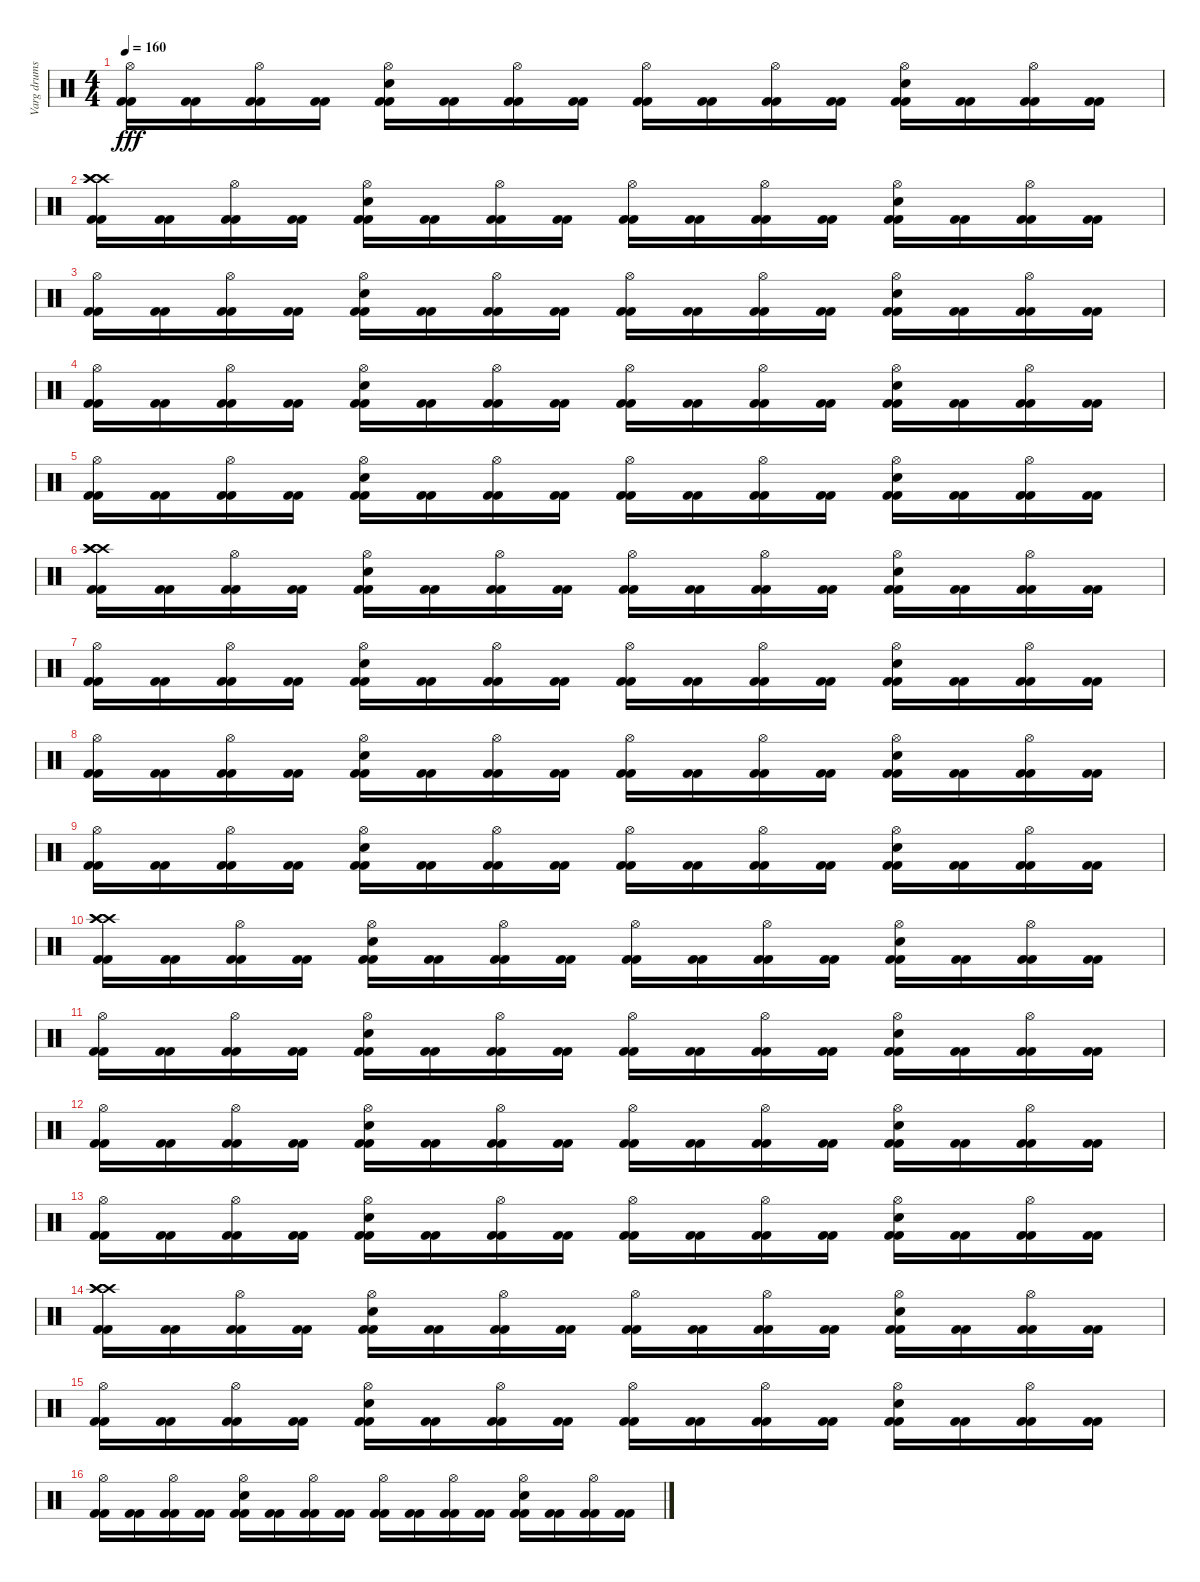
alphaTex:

\track ("Varg drums" "Varg drums") {instrument percussion}
\staff {score}
\articulation defaults
\ts (4 4)
\tempo 160
\clef neutral
\ks c
("Hi-Hat (open)" "Kick (hit) 2" "Kick (hit) 2").16{dy fff} ("Kick (hit) 2" "Kick (hit) 2").16 ("Hi-Hat (open)" "Kick (hit) 2" "Kick (hit) 2").16 ("Kick (hit) 2" "Kick (hit) 2").16 ("Hi-Hat (open)" "Electric Snare (hit)" "Kick (hit) 2" "Kick (hit) 2").16 ("Kick (hit) 2" "Kick (hit) 2").16 ("Hi-Hat (open)" "Kick (hit) 2" "Kick (hit) 2").16 ("Kick (hit) 2" "Kick (hit) 2").16 ("Hi-Hat (open)" "Kick (hit) 2" "Kick (hit) 2").16 ("Kick (hit) 2" "Kick (hit) 2").16 ("Hi-Hat (open)" "Kick (hit) 2" "Kick (hit) 2").16 ("Kick (hit) 2" "Kick (hit) 2").16 ("Hi-Hat (open)" "Electric Snare (hit)" "Kick (hit) 2" "Kick (hit) 2").16 ("Kick (hit) 2" "Kick (hit) 2").16 ("Hi-Hat (open)" "Kick (hit) 2" "Kick (hit) 2").16 ("Kick (hit) 2" "Kick (hit) 2").16 |
("Crash high (hit)" "Crash high (hit)" "Crash high (hit)" "Kick (hit) 2" "Kick (hit) 2").16 ("Kick (hit) 2" "Kick (hit) 2").16 ("Hi-Hat (open)" "Kick (hit) 2" "Kick (hit) 2").16 ("Kick (hit) 2" "Kick (hit) 2").16 ("Hi-Hat (open)" "Electric Snare (hit)" "Kick (hit) 2" "Kick (hit) 2").16 ("Kick (hit) 2" "Kick (hit) 2").16 ("Hi-Hat (open)" "Kick (hit) 2" "Kick (hit) 2").16 ("Kick (hit) 2" "Kick (hit) 2").16 ("Hi-Hat (open)" "Kick (hit) 2" "Kick (hit) 2").16 ("Kick (hit) 2" "Kick (hit) 2").16 ("Hi-Hat (open)" "Kick (hit) 2" "Kick (hit) 2").16 ("Kick (hit) 2" "Kick (hit) 2").16 ("Hi-Hat (open)" "Electric Snare (hit)" "Kick (hit) 2" "Kick (hit) 2").16 ("Kick (hit) 2" "Kick (hit) 2").16 ("Hi-Hat (open)" "Kick (hit) 2" "Kick (hit) 2").16 ("Kick (hit) 2" "Kick (hit) 2").16 |
("Hi-Hat (open)" "Kick (hit) 2" "Kick (hit) 2").16 ("Kick (hit) 2" "Kick (hit) 2").16 ("Hi-Hat (open)" "Kick (hit) 2" "Kick (hit) 2").16 ("Kick (hit) 2" "Kick (hit) 2").16 ("Hi-Hat (open)" "Electric Snare (hit)" "Kick (hit) 2" "Kick (hit) 2").16 ("Kick (hit) 2" "Kick (hit) 2").16 ("Hi-Hat (open)" "Kick (hit) 2" "Kick (hit) 2").16 ("Kick (hit) 2" "Kick (hit) 2").16 ("Hi-Hat (open)" "Kick (hit) 2" "Kick (hit) 2").16 ("Kick (hit) 2" "Kick (hit) 2").16 ("Hi-Hat (open)" "Kick (hit) 2" "Kick (hit) 2").16 ("Kick (hit) 2" "Kick (hit) 2").16 ("Hi-Hat (open)" "Electric Snare (hit)" "Kick (hit) 2" "Kick (hit) 2").16 ("Kick (hit) 2" "Kick (hit) 2").16 ("Hi-Hat (open)" "Kick (hit) 2" "Kick (hit) 2").16 ("Kick (hit) 2" "Kick (hit) 2").16 |
("Hi-Hat (open)" "Kick (hit) 2" "Kick (hit) 2").16 ("Kick (hit) 2" "Kick (hit) 2").16 ("Hi-Hat (open)" "Kick (hit) 2" "Kick (hit) 2").16 ("Kick (hit) 2" "Kick (hit) 2").16 ("Hi-Hat (open)" "Electric Snare (hit)" "Kick (hit) 2" "Kick (hit) 2").16 ("Kick (hit) 2" "Kick (hit) 2").16 ("Hi-Hat (open)" "Kick (hit) 2" "Kick (hit) 2").16 ("Kick (hit) 2" "Kick (hit) 2").16 ("Hi-Hat (open)" "Kick (hit) 2" "Kick (hit) 2").16 ("Kick (hit) 2" "Kick (hit) 2").16 ("Hi-Hat (open)" "Kick (hit) 2" "Kick (hit) 2").16 ("Kick (hit) 2" "Kick (hit) 2").16 ("Hi-Hat (open)" "Electric Snare (hit)" "Kick (hit) 2" "Kick (hit) 2").16 ("Kick (hit) 2" "Kick (hit) 2").16 ("Hi-Hat (open)" "Kick (hit) 2" "Kick (hit) 2").16 ("Kick (hit) 2" "Kick (hit) 2").16 |
("Hi-Hat (open)" "Kick (hit) 2" "Kick (hit) 2").16 ("Kick (hit) 2" "Kick (hit) 2").16 ("Hi-Hat (open)" "Kick (hit) 2" "Kick (hit) 2").16 ("Kick (hit) 2" "Kick (hit) 2").16 ("Hi-Hat (open)" "Electric Snare (hit)" "Kick (hit) 2" "Kick (hit) 2").16 ("Kick (hit) 2" "Kick (hit) 2").16 ("Hi-Hat (open)" "Kick (hit) 2" "Kick (hit) 2").16 ("Kick (hit) 2" "Kick (hit) 2").16 ("Hi-Hat (open)" "Kick (hit) 2" "Kick (hit) 2").16 ("Kick (hit) 2" "Kick (hit) 2").16 ("Hi-Hat (open)" "Kick (hit) 2" "Kick (hit) 2").16 ("Kick (hit) 2" "Kick (hit) 2").16 ("Hi-Hat (open)" "Electric Snare (hit)" "Kick (hit) 2" "Kick (hit) 2").16 ("Kick (hit) 2" "Kick (hit) 2").16 ("Hi-Hat (open)" "Kick (hit) 2" "Kick (hit) 2").16 ("Kick (hit) 2" "Kick (hit) 2").16 |
("Crash high (hit)" "Crash high (hit)" "Crash high (hit)" "Kick (hit) 2" "Kick (hit) 2").16 ("Kick (hit) 2" "Kick (hit) 2").16 ("Hi-Hat (open)" "Kick (hit) 2" "Kick (hit) 2").16 ("Kick (hit) 2" "Kick (hit) 2").16 ("Hi-Hat (open)" "Electric Snare (hit)" "Kick (hit) 2" "Kick (hit) 2").16 ("Kick (hit) 2" "Kick (hit) 2").16 ("Hi-Hat (open)" "Kick (hit) 2" "Kick (hit) 2").16 ("Kick (hit) 2" "Kick (hit) 2").16 ("Hi-Hat (open)" "Kick (hit) 2" "Kick (hit) 2").16 ("Kick (hit) 2" "Kick (hit) 2").16 ("Hi-Hat (open)" "Kick (hit) 2" "Kick (hit) 2").16 ("Kick (hit) 2" "Kick (hit) 2").16 ("Hi-Hat (open)" "Electric Snare (hit)" "Kick (hit) 2" "Kick (hit) 2").16 ("Kick (hit) 2" "Kick (hit) 2").16 ("Hi-Hat (open)" "Kick (hit) 2" "Kick (hit) 2").16 ("Kick (hit) 2" "Kick (hit) 2").16 |
("Hi-Hat (open)" "Kick (hit) 2" "Kick (hit) 2").16 ("Kick (hit) 2" "Kick (hit) 2").16 ("Hi-Hat (open)" "Kick (hit) 2" "Kick (hit) 2").16 ("Kick (hit) 2" "Kick (hit) 2").16 ("Hi-Hat (open)" "Electric Snare (hit)" "Kick (hit) 2" "Kick (hit) 2").16 ("Kick (hit) 2" "Kick (hit) 2").16 ("Hi-Hat (open)" "Kick (hit) 2" "Kick (hit) 2").16 ("Kick (hit) 2" "Kick (hit) 2").16 ("Hi-Hat (open)" "Kick (hit) 2" "Kick (hit) 2").16 ("Kick (hit) 2" "Kick (hit) 2").16 ("Hi-Hat (open)" "Kick (hit) 2" "Kick (hit) 2").16 ("Kick (hit) 2" "Kick (hit) 2").16 ("Hi-Hat (open)" "Electric Snare (hit)" "Kick (hit) 2" "Kick (hit) 2").16 ("Kick (hit) 2" "Kick (hit) 2").16 ("Hi-Hat (open)" "Kick (hit) 2" "Kick (hit) 2").16 ("Kick (hit) 2" "Kick (hit) 2").16 |
("Hi-Hat (open)" "Kick (hit) 2" "Kick (hit) 2").16 ("Kick (hit) 2" "Kick (hit) 2").16 ("Hi-Hat (open)" "Kick (hit) 2" "Kick (hit) 2").16 ("Kick (hit) 2" "Kick (hit) 2").16 ("Hi-Hat (open)" "Electric Snare (hit)" "Kick (hit) 2" "Kick (hit) 2").16 ("Kick (hit) 2" "Kick (hit) 2").16 ("Hi-Hat (open)" "Kick (hit) 2" "Kick (hit) 2").16 ("Kick (hit) 2" "Kick (hit) 2").16 ("Hi-Hat (open)" "Kick (hit) 2" "Kick (hit) 2").16 ("Kick (hit) 2" "Kick (hit) 2").16 ("Hi-Hat (open)" "Kick (hit) 2" "Kick (hit) 2").16 ("Kick (hit) 2" "Kick (hit) 2").16 ("Hi-Hat (open)" "Electric Snare (hit)" "Kick (hit) 2" "Kick (hit) 2").16 ("Kick (hit) 2" "Kick (hit) 2").16 ("Hi-Hat (open)" "Kick (hit) 2" "Kick (hit) 2").16 ("Kick (hit) 2" "Kick (hit) 2").16 |
("Hi-Hat (open)" "Kick (hit) 2" "Kick (hit) 2").16 ("Kick (hit) 2" "Kick (hit) 2").16 ("Hi-Hat (open)" "Kick (hit) 2" "Kick (hit) 2").16 ("Kick (hit) 2" "Kick (hit) 2").16 ("Hi-Hat (open)" "Electric Snare (hit)" "Kick (hit) 2" "Kick (hit) 2").16 ("Kick (hit) 2" "Kick (hit) 2").16 ("Hi-Hat (open)" "Kick (hit) 2" "Kick (hit) 2").16 ("Kick (hit) 2" "Kick (hit) 2").16 ("Hi-Hat (open)" "Kick (hit) 2" "Kick (hit) 2").16 ("Kick (hit) 2" "Kick (hit) 2").16 ("Hi-Hat (open)" "Kick (hit) 2" "Kick (hit) 2").16 ("Kick (hit) 2" "Kick (hit) 2").16 ("Hi-Hat (open)" "Electric Snare (hit)" "Kick (hit) 2" "Kick (hit) 2").16 ("Kick (hit) 2" "Kick (hit) 2").16 ("Hi-Hat (open)" "Kick (hit) 2" "Kick (hit) 2").16 ("Kick (hit) 2" "Kick (hit) 2").16 |
("Crash high (hit)" "Crash high (hit)" "Crash high (hit)" "Kick (hit) 2" "Kick (hit) 2").16 ("Kick (hit) 2" "Kick (hit) 2").16 ("Hi-Hat (open)" "Kick (hit) 2" "Kick (hit) 2").16 ("Kick (hit) 2" "Kick (hit) 2").16 ("Hi-Hat (open)" "Electric Snare (hit)" "Kick (hit) 2" "Kick (hit) 2").16 ("Kick (hit) 2" "Kick (hit) 2").16 ("Hi-Hat (open)" "Kick (hit) 2" "Kick (hit) 2").16 ("Kick (hit) 2" "Kick (hit) 2").16 ("Hi-Hat (open)" "Kick (hit) 2" "Kick (hit) 2").16 ("Kick (hit) 2" "Kick (hit) 2").16 ("Hi-Hat (open)" "Kick (hit) 2" "Kick (hit) 2").16 ("Kick (hit) 2" "Kick (hit) 2").16 ("Hi-Hat (open)" "Electric Snare (hit)" "Kick (hit) 2" "Kick (hit) 2").16 ("Kick (hit) 2" "Kick (hit) 2").16 ("Hi-Hat (open)" "Kick (hit) 2" "Kick (hit) 2").16 ("Kick (hit) 2" "Kick (hit) 2").16 |
("Hi-Hat (open)" "Kick (hit) 2" "Kick (hit) 2").16 ("Kick (hit) 2" "Kick (hit) 2").16 ("Hi-Hat (open)" "Kick (hit) 2" "Kick (hit) 2").16 ("Kick (hit) 2" "Kick (hit) 2").16 ("Hi-Hat (open)" "Electric Snare (hit)" "Kick (hit) 2" "Kick (hit) 2").16 ("Kick (hit) 2" "Kick (hit) 2").16 ("Hi-Hat (open)" "Kick (hit) 2" "Kick (hit) 2").16 ("Kick (hit) 2" "Kick (hit) 2").16 ("Hi-Hat (open)" "Kick (hit) 2" "Kick (hit) 2").16 ("Kick (hit) 2" "Kick (hit) 2").16 ("Hi-Hat (open)" "Kick (hit) 2" "Kick (hit) 2").16 ("Kick (hit) 2" "Kick (hit) 2").16 ("Hi-Hat (open)" "Electric Snare (hit)" "Kick (hit) 2" "Kick (hit) 2").16 ("Kick (hit) 2" "Kick (hit) 2").16 ("Hi-Hat (open)" "Kick (hit) 2" "Kick (hit) 2").16 ("Kick (hit) 2" "Kick (hit) 2").16 |
("Hi-Hat (open)" "Kick (hit) 2" "Kick (hit) 2").16 ("Kick (hit) 2" "Kick (hit) 2").16 ("Hi-Hat (open)" "Kick (hit) 2" "Kick (hit) 2").16 ("Kick (hit) 2" "Kick (hit) 2").16 ("Hi-Hat (open)" "Electric Snare (hit)" "Kick (hit) 2" "Kick (hit) 2").16 ("Kick (hit) 2" "Kick (hit) 2").16 ("Hi-Hat (open)" "Kick (hit) 2" "Kick (hit) 2").16 ("Kick (hit) 2" "Kick (hit) 2").16 ("Hi-Hat (open)" "Kick (hit) 2" "Kick (hit) 2").16 ("Kick (hit) 2" "Kick (hit) 2").16 ("Hi-Hat (open)" "Kick (hit) 2" "Kick (hit) 2").16 ("Kick (hit) 2" "Kick (hit) 2").16 ("Hi-Hat (open)" "Electric Snare (hit)" "Kick (hit) 2" "Kick (hit) 2").16 ("Kick (hit) 2" "Kick (hit) 2").16 ("Hi-Hat (open)" "Kick (hit) 2" "Kick (hit) 2").16 ("Kick (hit) 2" "Kick (hit) 2").16 |
("Hi-Hat (open)" "Kick (hit) 2" "Kick (hit) 2").16 ("Kick (hit) 2" "Kick (hit) 2").16 ("Hi-Hat (open)" "Kick (hit) 2" "Kick (hit) 2").16 ("Kick (hit) 2" "Kick (hit) 2").16 ("Hi-Hat (open)" "Electric Snare (hit)" "Kick (hit) 2" "Kick (hit) 2").16 ("Kick (hit) 2" "Kick (hit) 2").16 ("Hi-Hat (open)" "Kick (hit) 2" "Kick (hit) 2").16 ("Kick (hit) 2" "Kick (hit) 2").16 ("Hi-Hat (open)" "Kick (hit) 2" "Kick (hit) 2").16 ("Kick (hit) 2" "Kick (hit) 2").16 ("Hi-Hat (open)" "Kick (hit) 2" "Kick (hit) 2").16 ("Kick (hit) 2" "Kick (hit) 2").16 ("Hi-Hat (open)" "Electric Snare (hit)" "Kick (hit) 2" "Kick (hit) 2").16 ("Kick (hit) 2" "Kick (hit) 2").16 ("Hi-Hat (open)" "Kick (hit) 2" "Kick (hit) 2").16 ("Kick (hit) 2" "Kick (hit) 2").16 |
("Crash high (hit)" "Crash high (hit)" "Crash high (hit)" "Kick (hit) 2" "Kick (hit) 2").16 ("Kick (hit) 2" "Kick (hit) 2").16 ("Hi-Hat (open)" "Kick (hit) 2" "Kick (hit) 2").16 ("Kick (hit) 2" "Kick (hit) 2").16 ("Hi-Hat (open)" "Electric Snare (hit)" "Kick (hit) 2" "Kick (hit) 2").16 ("Kick (hit) 2" "Kick (hit) 2").16 ("Hi-Hat (open)" "Kick (hit) 2" "Kick (hit) 2").16 ("Kick (hit) 2" "Kick (hit) 2").16 ("Hi-Hat (open)" "Kick (hit) 2" "Kick (hit) 2").16 ("Kick (hit) 2" "Kick (hit) 2").16 ("Hi-Hat (open)" "Kick (hit) 2" "Kick (hit) 2").16 ("Kick (hit) 2" "Kick (hit) 2").16 ("Hi-Hat (open)" "Electric Snare (hit)" "Kick (hit) 2" "Kick (hit) 2").16 ("Kick (hit) 2" "Kick (hit) 2").16 ("Hi-Hat (open)" "Kick (hit) 2" "Kick (hit) 2").16 ("Kick (hit) 2" "Kick (hit) 2").16 |
("Hi-Hat (open)" "Kick (hit) 2" "Kick (hit) 2").16 ("Kick (hit) 2" "Kick (hit) 2").16 ("Hi-Hat (open)" "Kick (hit) 2" "Kick (hit) 2").16 ("Kick (hit) 2" "Kick (hit) 2").16 ("Hi-Hat (open)" "Electric Snare (hit)" "Kick (hit) 2" "Kick (hit) 2").16 ("Kick (hit) 2" "Kick (hit) 2").16 ("Hi-Hat (open)" "Kick (hit) 2" "Kick (hit) 2").16 ("Kick (hit) 2" "Kick (hit) 2").16 ("Hi-Hat (open)" "Kick (hit) 2" "Kick (hit) 2").16 ("Kick (hit) 2" "Kick (hit) 2").16 ("Hi-Hat (open)" "Kick (hit) 2" "Kick (hit) 2").16 ("Kick (hit) 2" "Kick (hit) 2").16 ("Hi-Hat (open)" "Electric Snare (hit)" "Kick (hit) 2" "Kick (hit) 2").16 ("Kick (hit) 2" "Kick (hit) 2").16 ("Hi-Hat (open)" "Kick (hit) 2" "Kick (hit) 2").16 ("Kick (hit) 2" "Kick (hit) 2").16 |
("Hi-Hat (open)" "Kick (hit) 2" "Kick (hit) 2").16 ("Kick (hit) 2" "Kick (hit) 2").16 ("Hi-Hat (open)" "Kick (hit) 2" "Kick (hit) 2").16 ("Kick (hit) 2" "Kick (hit) 2").16 ("Hi-Hat (open)" "Electric Snare (hit)" "Kick (hit) 2" "Kick (hit) 2").16 ("Kick (hit) 2" "Kick (hit) 2").16 ("Hi-Hat (open)" "Kick (hit) 2" "Kick (hit) 2").16 ("Kick (hit) 2" "Kick (hit) 2").16 ("Hi-Hat (open)" "Kick (hit) 2" "Kick (hit) 2").16 ("Kick (hit) 2" "Kick (hit) 2").16 ("Hi-Hat (open)" "Kick (hit) 2" "Kick (hit) 2").16 ("Kick (hit) 2" "Kick (hit) 2").16 ("Hi-Hat (open)" "Electric Snare (hit)" "Kick (hit) 2" "Kick (hit) 2").16 ("Kick (hit) 2" "Kick (hit) 2").16 ("Hi-Hat (open)" "Kick (hit) 2" "Kick (hit) 2").16 ("Kick (hit) 2" "Kick (hit) 2").16
